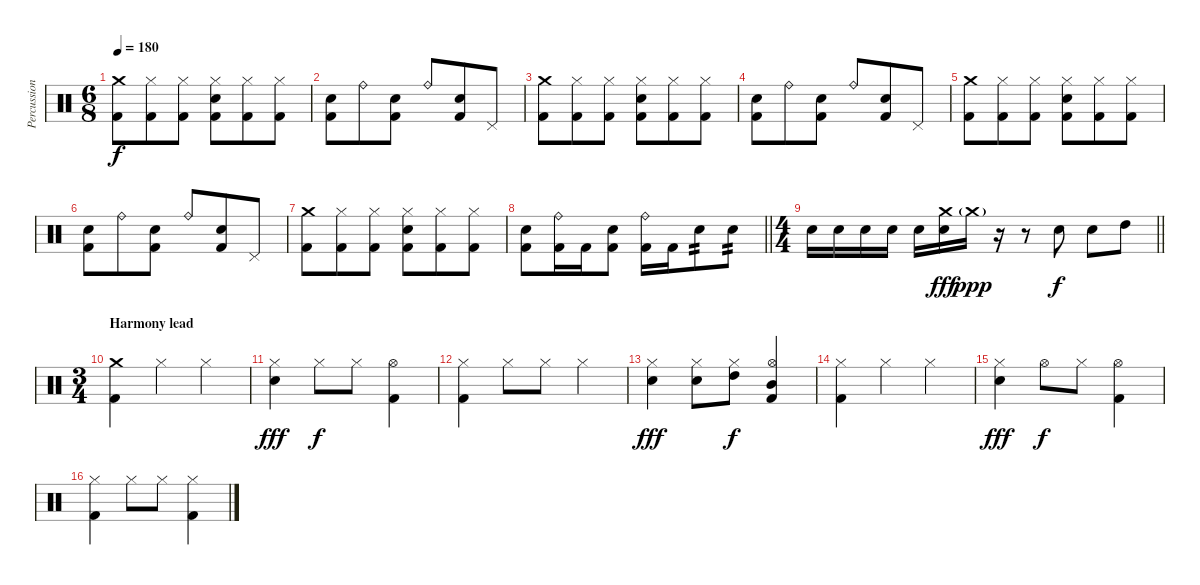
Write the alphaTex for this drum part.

\track ("Percussion" "Percussion") {instrument percussion}
\staff {score}
\articulation defaults
\ts (6 8)
\tempo 180
\clef neutral
\ks c
("Crash medium (hit)" "Kick (hit) 2").8{dy f} ("Hi-Hat (closed)" "Kick (hit) 2").8 ("Hi-Hat (closed)" "Kick (hit) 2").8 ("Hi-Hat (closed)" "Electric Snare (hit)" "Kick (hit) 2").8 ("Hi-Hat (closed)" "Kick (hit) 2").8 ("Hi-Hat (closed)" "Kick (hit) 2").8 |
("Hand Clap (hit)" "Kick (hit) 2").8 "Ride (bell)".8 ("Hand Clap (hit)" "Kick (hit) 2").8 "Ride (bell)".8 ("Hand Clap (hit)" "Kick (hit) 2").8 "Pedal Hi-Hat (hit)".8 |
("Crash medium (hit)" "Kick (hit) 2").8 ("Hi-Hat (closed)" "Kick (hit) 2").8 ("Hi-Hat (closed)" "Kick (hit) 2").8 ("Hi-Hat (closed)" "Electric Snare (hit)" "Kick (hit) 2").8 ("Hi-Hat (closed)" "Kick (hit) 2").8 ("Hi-Hat (closed)" "Kick (hit) 2").8 |
("Hand Clap (hit)" "Kick (hit) 2").8 "Ride (bell)".8 ("Hand Clap (hit)" "Kick (hit) 2").8 "Ride (bell)".8 ("Hand Clap (hit)" "Kick (hit) 2").8 "Pedal Hi-Hat (hit)".8 |
("Crash medium (hit)" "Kick (hit) 2").8 ("Hi-Hat (closed)" "Kick (hit) 2").8 ("Hi-Hat (closed)" "Kick (hit) 2").8 ("Hi-Hat (closed)" "Electric Snare (hit)" "Kick (hit) 2").8 ("Hi-Hat (closed)" "Kick (hit) 2").8 ("Hi-Hat (closed)" "Kick (hit) 2").8 |
("Hand Clap (hit)" "Kick (hit) 2").8 "Ride (bell)".8 ("Hand Clap (hit)" "Kick (hit) 2").8 "Ride (bell)".8 ("Hand Clap (hit)" "Kick (hit) 2").8 "Pedal Hi-Hat (hit)".8 |
("Crash medium (hit)" "Kick (hit) 2").8 ("Hi-Hat (closed)" "Kick (hit) 2").8 ("Hi-Hat (closed)" "Kick (hit) 2").8 ("Hi-Hat (closed)" "Electric Snare (hit)" "Kick (hit) 2").8 ("Hi-Hat (closed)" "Kick (hit) 2").8 ("Hi-Hat (closed)" "Kick (hit) 2").8 |
\barLineRight lightlight
("Hand Clap (hit)" "Kick (hit) 2").8 ("Ride (bell)" "Kick (hit) 2").16 "Kick (hit) 2".16 ("Hand Clap (hit)" "Kick (hit) 2").8 ("Ride (bell)" "Kick (hit) 2").16 "Kick (hit) 2".16 "Electric Snare (hit)".8{tp 2} "Electric Snare (hit)".8{tp 2} |
\ts (4 4)
\barLineRight lightlight "Electric Snare (hit)".16 "Electric Snare (hit)".16 "Electric Snare (hit)".16 "Electric Snare (hit)".16 "Electric Snare (hit)".16
("Crash medium (hit)" "Electric Snare (hit)").16{dy fff} "Crash medium (hit)"{g}.16{dy ppp} r.16 r.8 "Electric Snare (hit)".8{dy f} "Electric Snare (hit)".8 "High Tom (hit)".8 |
\ts (3 4)
\section ("" "Harmony lead")
("Crash medium (hit)" "Kick (hit) 2").4 "Hi-Hat (closed)".4 "Hi-Hat (closed)".4 |
("Hi-Hat (closed)" "Electric Snare (hit)").4{dy fff} "Hi-Hat (closed)".8{dy f} "Hi-Hat (closed)".8 ("Hi-Hat (open)" "Kick (hit) 2").4 |
("Hi-Hat (closed)" "Kick (hit) 2").4 "Hi-Hat (closed)".8 "Hi-Hat (closed)".8 "Hi-Hat (closed)".4 |
("Hi-Hat (closed)" "Electric Snare (hit)").4{dy fff} ("Hi-Hat (closed)" "Electric Snare (hit)").8 ("Hi-Hat (closed)" "High Tom (hit)").8{dy f} ("Hi-Hat (open)" "Mid Tom (hit)" "Kick (hit) 2").4 |
("Hi-Hat (closed)" "Kick (hit) 2").4 "Hi-Hat (closed)".4 "Hi-Hat (closed)".4 |
("Hi-Hat (closed)" "Electric Snare (hit)").4{dy fff} "Hi-Hat (open)".8{dy f} "Hi-Hat (closed)".8 ("Hi-Hat (open)" "Kick (hit) 2").4 |
("Hi-Hat (closed)" "Kick (hit) 2").4 "Hi-Hat (closed)".8 "Hi-Hat (closed)".8 ("Hi-Hat (closed)" "Kick (hit) 2").4
